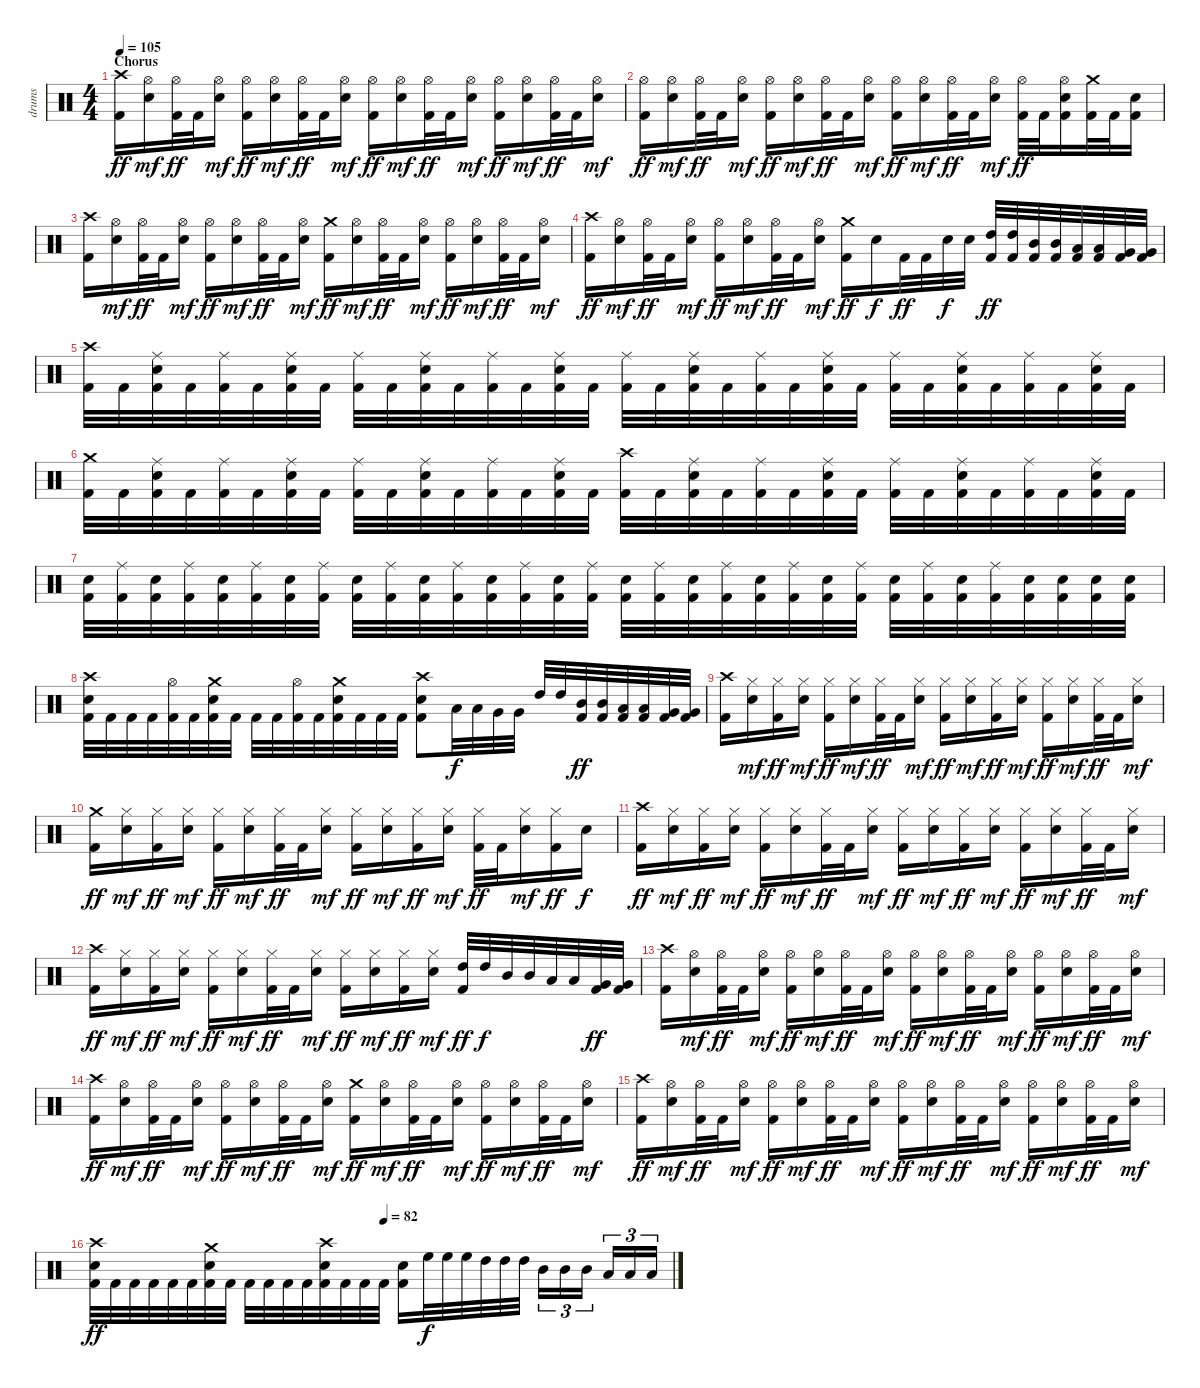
\track ("drums" "drums") {instrument percussion}
\staff {score}
\articulation defaults
\ts (4 4)
\section ("" "Chorus")
\tempo 105
\clef neutral
\ks c
("Crash high (hit)" "Kick (hit) 2").16{dy ff} ("Hi-Hat (open)" "Snare (hit) 2").16{dy mf} ("Hi-Hat (open)" "Kick (hit) 2").32{dy ff} "Kick (hit) 2".32 ("Hi-Hat (open)" "Snare (hit) 2").16{dy mf} ("Hi-Hat (open)" "Kick (hit) 2").16{dy ff} ("Hi-Hat (open)" "Snare (hit) 2").16{dy mf} ("Hi-Hat (open)" "Kick (hit) 2").32{dy ff} "Kick (hit) 2".32 ("Hi-Hat (open)" "Snare (hit) 2").16{dy mf} ("Hi-Hat (open)" "Kick (hit) 2").16{dy ff} ("Hi-Hat (open)" "Snare (hit) 2").16{dy mf} ("Hi-Hat (open)" "Kick (hit) 2").32{dy ff} "Kick (hit) 2".32 ("Hi-Hat (open)" "Snare (hit) 2").16{dy mf} ("Hi-Hat (open)" "Kick (hit) 2").16{dy ff} ("Hi-Hat (open)" "Snare (hit) 2").16{dy mf} ("Hi-Hat (open)" "Kick (hit) 2").32{dy ff} "Kick (hit) 2".32 ("Hi-Hat (open)" "Snare (hit) 2").16{dy mf} |
("Hi-Hat (open)" "Kick (hit) 2").16{dy ff} ("Hi-Hat (open)" "Snare (hit) 2").16{dy mf} ("Hi-Hat (open)" "Kick (hit) 2").32{dy ff} "Kick (hit) 2".32 ("Hi-Hat (open)" "Snare (hit) 2").16{dy mf} ("Hi-Hat (open)" "Kick (hit) 2").16{dy ff} ("Hi-Hat (open)" "Snare (hit) 2").16{dy mf} ("Hi-Hat (open)" "Kick (hit) 2").32{dy ff} "Kick (hit) 2".32 ("Hi-Hat (open)" "Snare (hit) 2").16{dy mf} ("Hi-Hat (open)" "Kick (hit) 2").16{dy ff} ("Hi-Hat (open)" "Snare (hit) 2").16{dy mf} ("Hi-Hat (open)" "Kick (hit) 2").32{dy ff} "Kick (hit) 2".32 ("Hi-Hat (open)" "Snare (hit) 2").16{dy mf} ("Hi-Hat (open)" "Kick (hit) 2").32{dy ff} "Kick (hit) 2".32 ("Hi-Hat (open)" "Snare (hit) 2" "Kick (hit) 2").16 ("Crash medium (hit)" "Kick (hit) 2").32 "Kick (hit) 2".32 ("Snare (hit) 2" "Kick (hit) 2").16 |
("Crash high (hit)" "Kick (hit) 2").16 ("Hi-Hat (open)" "Snare (hit) 2").16{dy mf} ("Hi-Hat (open)" "Kick (hit) 2").32{dy ff} "Kick (hit) 2".32 ("Hi-Hat (open)" "Snare (hit) 2").16{dy mf} ("Hi-Hat (open)" "Kick (hit) 2").16{dy ff} ("Hi-Hat (open)" "Snare (hit) 2").16{dy mf} ("Hi-Hat (open)" "Kick (hit) 2").32{dy ff} "Kick (hit) 2".32 ("Hi-Hat (open)" "Snare (hit) 2").16{dy mf} ("Crash medium (hit)" "Kick (hit) 2").16{dy ff} ("Hi-Hat (open)" "Snare (hit) 2").16{dy mf} ("Hi-Hat (open)" "Kick (hit) 2").32{dy ff} "Kick (hit) 2".32 ("Hi-Hat (open)" "Snare (hit) 2").16{dy mf} ("Hi-Hat (open)" "Kick (hit) 2").16{dy ff} ("Hi-Hat (open)" "Snare (hit) 2").16{dy mf} ("Hi-Hat (open)" "Kick (hit) 2").32{dy ff} "Kick (hit) 2".32 ("Hi-Hat (open)" "Snare (hit) 2").16{dy mf} |
("Crash high (hit)" "Kick (hit) 2").16{dy ff} ("Hi-Hat (open)" "Snare (hit) 2").16{dy mf} ("Hi-Hat (open)" "Kick (hit) 2").32{dy ff} "Kick (hit) 2".32 ("Hi-Hat (open)" "Snare (hit) 2").16{dy mf} ("Hi-Hat (open)" "Kick (hit) 2").16{dy ff} ("Hi-Hat (open)" "Snare (hit) 2").16{dy mf} ("Hi-Hat (open)" "Kick (hit) 2").32{dy ff} "Kick (hit) 2".32 ("Hi-Hat (open)" "Snare (hit) 2").16{dy mf} ("Crash medium (hit)" "Kick (hit) 2").16{dy ff} "Snare (hit) 2".16{dy f} "Kick (hit) 2".32{dy ff} "Kick (hit) 2".32 "Snare (hit) 2".32{dy f} "Snare (hit) 2".32 ("High Tom (hit)" "Kick (hit) 2").32{dy ff} ("High Tom (hit)" "Kick (hit) 2").32 ("Mid Tom (hit)" "Kick (hit) 2").32 ("Mid Tom (hit)" "Kick (hit) 2").32 ("Low Tom (hit)" "Kick (hit) 2").32 ("Low Tom (hit)" "Kick (hit) 2").32 ("Very Low Tom (hit)" "Kick (hit) 2").32 ("Very Low Tom (hit)" "Kick (hit) 2").32 |
("Crash high (hit)" "Kick (hit) 2").32 "Kick (hit) 2".32 ("Ride (middle)" "Snare (hit) 2" "Kick (hit) 2").32 "Kick (hit) 2".32 ("Ride (middle)" "Kick (hit) 2").32 "Kick (hit) 2".32 ("Ride (middle)" "Snare (hit) 2" "Kick (hit) 2").32 "Kick (hit) 2".32 ("Ride (middle)" "Kick (hit) 2").32 "Kick (hit) 2".32 ("Ride (middle)" "Snare (hit) 2" "Kick (hit) 2").32 "Kick (hit) 2".32 ("Ride (middle)" "Kick (hit) 2").32 "Kick (hit) 2".32 ("Ride (middle)" "Snare (hit) 2" "Kick (hit) 2").32 "Kick (hit) 2".32 ("Ride (middle)" "Kick (hit) 2").32 "Kick (hit) 2".32 ("Ride (middle)" "Snare (hit) 2" "Kick (hit) 2").32 "Kick (hit) 2".32 ("Ride (middle)" "Kick (hit) 2").32 "Kick (hit) 2".32 ("Ride (middle)" "Snare (hit) 2" "Kick (hit) 2").32 "Kick (hit) 2".32 ("Ride (middle)" "Kick (hit) 2").32 "Kick (hit) 2".32 ("Ride (middle)" "Snare (hit) 2" "Kick (hit) 2").32 "Kick (hit) 2".32 ("Ride (middle)" "Kick (hit) 2").32 "Kick (hit) 2".32 ("Ride (middle)" "Snare (hit) 2" "Kick (hit) 2").32 "Kick (hit) 2".32 |
("Crash medium (hit)" "Kick (hit) 2").32 "Kick (hit) 2".32 ("Ride (middle)" "Snare (hit) 2" "Kick (hit) 2").32 "Kick (hit) 2".32 ("Ride (middle)" "Kick (hit) 2").32 "Kick (hit) 2".32 ("Ride (middle)" "Snare (hit) 2" "Kick (hit) 2").32 "Kick (hit) 2".32 ("Ride (middle)" "Kick (hit) 2").32 "Kick (hit) 2".32 ("Ride (middle)" "Snare (hit) 2" "Kick (hit) 2").32 "Kick (hit) 2".32 ("Ride (middle)" "Kick (hit) 2").32 "Kick (hit) 2".32 ("Ride (middle)" "Snare (hit) 2" "Kick (hit) 2").32 "Kick (hit) 2".32 ("Crash high (hit)" "Kick (hit) 2").32 "Kick (hit) 2".32 ("Ride (middle)" "Snare (hit) 2" "Kick (hit) 2").32 "Kick (hit) 2".32 ("Ride (middle)" "Kick (hit) 2").32 "Kick (hit) 2".32 ("Ride (middle)" "Snare (hit) 2" "Kick (hit) 2").32 "Kick (hit) 2".32 ("Ride (middle)" "Kick (hit) 2").32 "Kick (hit) 2".32 ("Ride (middle)" "Snare (hit) 2" "Kick (hit) 2").32 "Kick (hit) 2".32 ("Ride (middle)" "Kick (hit) 2").32 "Kick (hit) 2".32 ("Ride (middle)" "Snare (hit) 2" "Kick (hit) 2").32 "Kick (hit) 2".32 |
("Snare (hit) 2" "Kick (hit) 2").32 ("Ride (middle)" "Kick (hit) 2").32 ("Snare (hit) 2" "Kick (hit) 2").32 ("Ride (middle)" "Kick (hit) 2").32 ("Snare (hit) 2" "Kick (hit) 2").32 ("Ride (middle)" "Kick (hit) 2").32 ("Snare (hit) 2" "Kick (hit) 2").32 ("Ride (middle)" "Kick (hit) 2").32 ("Snare (hit) 2" "Kick (hit) 2").32 ("Ride (middle)" "Kick (hit) 2").32 ("Snare (hit) 2" "Kick (hit) 2").32 ("Ride (middle)" "Kick (hit) 2").32 ("Snare (hit) 2" "Kick (hit) 2").32 ("Ride (middle)" "Kick (hit) 2").32 ("Snare (hit) 2" "Kick (hit) 2").32 ("Ride (middle)" "Kick (hit) 2").32 ("Snare (hit) 2" "Kick (hit) 2").32 ("Ride (middle)" "Kick (hit) 2").32 ("Snare (hit) 2" "Kick (hit) 2").32 ("Ride (middle)" "Kick (hit) 2").32 ("Snare (hit) 2" "Kick (hit) 2").32 ("Ride (middle)" "Kick (hit) 2").32 ("Snare (hit) 2" "Kick (hit) 2").32 ("Ride (middle)" "Kick (hit) 2").32 ("Snare (hit) 2" "Kick (hit) 2").32 ("Ride (middle)" "Kick (hit) 2").32 ("Snare (hit) 2" "Kick (hit) 2").32 ("Ride (middle)" "Kick (hit) 2").32 ("Snare (hit) 2" "Kick (hit) 2").32 ("Snare (hit) 2" "Kick (hit) 2").32 ("Snare (hit) 2" "Kick (hit) 2").32 ("Snare (hit) 2" "Kick (hit) 2").32 |
("Crash high (hit)" "Snare (hit) 2" "Kick (hit) 2").32 "Kick (hit) 2".32 "Kick (hit) 2".32 "Kick (hit) 2".32 ("Hi-Hat (open)" "Kick (hit) 2").32 "Kick (hit) 2".32 ("Crash medium (hit)" "Snare (hit) 2" "Kick (hit) 2").32 "Kick (hit) 2".32 "Kick (hit) 2".32 "Kick (hit) 2".32 ("Hi-Hat (open)" "Kick (hit) 2").32 "Kick (hit) 2".32 ("Crash medium (hit)" "Snare (hit) 2" "Kick (hit) 2").32 "Kick (hit) 2".32 "Kick (hit) 2".32 "Kick (hit) 2".32 ("Crash high (hit)" "Snare (hit) 2" "Kick (hit) 2").8 "Low Floor Tom (hit)".32{dy f} "Low Floor Tom (hit)".32 "Very Low Tom (hit)".32 "Very Low Tom (hit)".32 "High Tom (hit)".32 "High Tom (hit)".32 ("Mid Tom (hit)" "Kick (hit) 2").32{dy ff} ("Mid Tom (hit)" "Kick (hit) 2").32 ("Low Tom (hit)" "Kick (hit) 2").32 ("Low Tom (hit)" "Kick (hit) 2").32 ("Very Low Tom (hit)" "Kick (hit) 2").32 ("Very Low Tom (hit)" "Kick (hit) 2").32 |
\section ("" "")
("Crash high (hit)" "Kick (hit) 2").16 ("Hi-Hat (closed)" "Snare (hit) 2").16{dy mf} ("Hi-Hat (closed)" "Kick (hit) 2").16{dy ff} ("Hi-Hat (closed)" "Snare (hit) 2").16{dy mf} ("Hi-Hat (closed)" "Kick (hit) 2").16{dy ff} ("Hi-Hat (closed)" "Snare (hit) 2").16{dy mf} ("Hi-Hat (closed)" "Kick (hit) 2").32{dy ff} "Kick (hit) 2".32 ("Hi-Hat (closed)" "Snare (hit) 2").16{dy mf} ("Hi-Hat (closed)" "Kick (hit) 2").16{dy ff} ("Hi-Hat (closed)" "Snare (hit) 2").16{dy mf} ("Hi-Hat (closed)" "Kick (hit) 2").16{dy ff} ("Hi-Hat (closed)" "Snare (hit) 2").16{dy mf} ("Hi-Hat (closed)" "Kick (hit) 2").16{dy ff} ("Hi-Hat (closed)" "Snare (hit) 2").16{dy mf} ("Hi-Hat (closed)" "Kick (hit) 2").32{dy ff} "Kick (hit) 2".32 ("Hi-Hat (closed)" "Snare (hit) 2").16{dy mf} |
("Crash medium (hit)" "Kick (hit) 2").16{dy ff} ("Hi-Hat (closed)" "Snare (hit) 2").16{dy mf} ("Hi-Hat (closed)" "Kick (hit) 2").16{dy ff} ("Hi-Hat (closed)" "Snare (hit) 2").16{dy mf} ("Hi-Hat (closed)" "Kick (hit) 2").16{dy ff} ("Hi-Hat (closed)" "Snare (hit) 2").16{dy mf} ("Hi-Hat (closed)" "Kick (hit) 2").32{dy ff} "Kick (hit) 2".32 ("Hi-Hat (closed)" "Snare (hit) 2").16{dy mf} ("Hi-Hat (closed)" "Kick (hit) 2").16{dy ff} ("Hi-Hat (closed)" "Snare (hit) 2").16{dy mf} ("Hi-Hat (closed)" "Kick (hit) 2").16{dy ff} ("Hi-Hat (closed)" "Snare (hit) 2").16{dy mf} ("Hi-Hat (closed)" "Kick (hit) 2").32{dy ff} "Kick (hit) 2".32 ("Hi-Hat (closed)" "Snare (hit) 2").16{dy mf} ("Hi-Hat (closed)" "Kick (hit) 2").16{dy ff} "Snare (hit) 2".16{dy f} |
("Crash high (hit)" "Kick (hit) 2").16{dy ff} ("Hi-Hat (closed)" "Snare (hit) 2").16{dy mf} ("Hi-Hat (closed)" "Kick (hit) 2").16{dy ff} ("Hi-Hat (closed)" "Snare (hit) 2").16{dy mf} ("Hi-Hat (closed)" "Kick (hit) 2").16{dy ff} ("Hi-Hat (closed)" "Snare (hit) 2").16{dy mf} ("Hi-Hat (closed)" "Kick (hit) 2").32{dy ff} "Kick (hit) 2".32 ("Hi-Hat (closed)" "Snare (hit) 2").16{dy mf} ("Hi-Hat (closed)" "Kick (hit) 2").16{dy ff} ("Hi-Hat (closed)" "Snare (hit) 2").16{dy mf} ("Hi-Hat (closed)" "Kick (hit) 2").16{dy ff} ("Hi-Hat (closed)" "Snare (hit) 2").16{dy mf} ("Hi-Hat (closed)" "Kick (hit) 2").16{dy ff} ("Hi-Hat (closed)" "Snare (hit) 2").16{dy mf} ("Hi-Hat (closed)" "Kick (hit) 2").32{dy ff} "Kick (hit) 2".32 ("Hi-Hat (closed)" "Snare (hit) 2").16{dy mf} |
("Crash high (hit)" "Kick (hit) 2").16{dy ff} ("Hi-Hat (closed)" "Snare (hit) 2").16{dy mf} ("Hi-Hat (closed)" "Kick (hit) 2").16{dy ff} ("Hi-Hat (closed)" "Snare (hit) 2").16{dy mf} ("Hi-Hat (closed)" "Kick (hit) 2").16{dy ff} ("Hi-Hat (closed)" "Snare (hit) 2").16{dy mf} ("Hi-Hat (closed)" "Kick (hit) 2").32{dy ff} "Kick (hit) 2".32 ("Hi-Hat (closed)" "Snare (hit) 2").16{dy mf} ("Hi-Hat (closed)" "Kick (hit) 2").16{dy ff} ("Hi-Hat (closed)" "Snare (hit) 2").16{dy mf} ("Hi-Hat (closed)" "Kick (hit) 2").16{dy ff} ("Hi-Hat (closed)" "Snare (hit) 2").16{dy mf} ("High Tom (hit)" "Kick (hit) 2").32{dy ff} "High Tom (hit)".32{dy f} "Mid Tom (hit)".32 "Mid Tom (hit)".32 "Low Tom (hit)".32 "Low Tom (hit)".32 ("Very Low Tom (hit)" "Kick (hit) 2").32{dy ff} ("Very Low Tom (hit)" "Kick (hit) 2").32 |
("Crash high (hit)" "Kick (hit) 2").16 ("Hi-Hat (open)" "Snare (hit) 2").16{dy mf} ("Hi-Hat (open)" "Kick (hit) 2").32{dy ff} "Kick (hit) 2".32 ("Hi-Hat (open)" "Snare (hit) 2").16{dy mf} ("Hi-Hat (open)" "Kick (hit) 2").16{dy ff} ("Hi-Hat (open)" "Snare (hit) 2").16{dy mf} ("Hi-Hat (open)" "Kick (hit) 2").32{dy ff} "Kick (hit) 2".32 ("Hi-Hat (open)" "Snare (hit) 2").16{dy mf} ("Hi-Hat (open)" "Kick (hit) 2").16{dy ff} ("Hi-Hat (open)" "Snare (hit) 2").16{dy mf} ("Hi-Hat (open)" "Kick (hit) 2").32{dy ff} "Kick (hit) 2".32 ("Hi-Hat (open)" "Snare (hit) 2").16{dy mf} ("Hi-Hat (open)" "Kick (hit) 2").16{dy ff} ("Hi-Hat (open)" "Snare (hit) 2").16{dy mf} ("Hi-Hat (open)" "Kick (hit) 2").32{dy ff} "Kick (hit) 2".32 ("Hi-Hat (open)" "Snare (hit) 2").16{dy mf} |
("Crash high (hit)" "Kick (hit) 2").16{dy ff} ("Hi-Hat (open)" "Snare (hit) 2").16{dy mf} ("Hi-Hat (open)" "Kick (hit) 2").32{dy ff} "Kick (hit) 2".32 ("Hi-Hat (open)" "Snare (hit) 2").16{dy mf} ("Hi-Hat (open)" "Kick (hit) 2").16{dy ff} ("Hi-Hat (open)" "Snare (hit) 2").16{dy mf} ("Hi-Hat (open)" "Kick (hit) 2").32{dy ff} "Kick (hit) 2".32 ("Hi-Hat (open)" "Snare (hit) 2").16{dy mf} ("Crash medium (hit)" "Kick (hit) 2").16{dy ff} ("Hi-Hat (open)" "Snare (hit) 2").16{dy mf} ("Hi-Hat (open)" "Kick (hit) 2").32{dy ff} "Kick (hit) 2".32 ("Hi-Hat (open)" "Snare (hit) 2").16{dy mf} ("Hi-Hat (open)" "Kick (hit) 2").16{dy ff} ("Hi-Hat (open)" "Snare (hit) 2").16{dy mf} ("Hi-Hat (open)" "Kick (hit) 2").32{dy ff} "Kick (hit) 2".32 ("Hi-Hat (open)" "Snare (hit) 2").16{dy mf} |
("Crash high (hit)" "Kick (hit) 2").16{dy ff} ("Hi-Hat (open)" "Snare (hit) 2").16{dy mf} ("Hi-Hat (open)" "Kick (hit) 2").32{dy ff} "Kick (hit) 2".32 ("Hi-Hat (open)" "Snare (hit) 2").16{dy mf} ("Hi-Hat (open)" "Kick (hit) 2").16{dy ff} ("Hi-Hat (open)" "Snare (hit) 2").16{dy mf} ("Hi-Hat (open)" "Kick (hit) 2").32{dy ff} "Kick (hit) 2".32 ("Hi-Hat (open)" "Snare (hit) 2").16{dy mf} ("Hi-Hat (open)" "Kick (hit) 2").16{dy ff} ("Hi-Hat (open)" "Snare (hit) 2").16{dy mf} ("Hi-Hat (open)" "Kick (hit) 2").32{dy ff} "Kick (hit) 2".32 ("Hi-Hat (open)" "Snare (hit) 2").16{dy mf} ("Hi-Hat (open)" "Kick (hit) 2").16{dy ff} ("Hi-Hat (open)" "Snare (hit) 2").16{dy mf} ("Hi-Hat (open)" "Kick (hit) 2").32{dy ff} "Kick (hit) 2".32 ("Hi-Hat (open)" "Snare (hit) 2").16{dy mf} |
\tempo (82 0.5)
("Crash high (hit)" "Snare (hit) 2" "Kick (hit) 2").32{dy ff} "Kick (hit) 2".32 "Kick (hit) 2".32 "Kick (hit) 2".32 "Kick (hit) 2".32 "Kick (hit) 2".32 ("Crash medium (hit)" "Snare (hit) 2" "Kick (hit) 2").32 "Kick (hit) 2".32 "Kick (hit) 2".32 "Kick (hit) 2".32 "Kick (hit) 2".32 "Kick (hit) 2".32 ("Crash high (hit)" "Snare (hit) 2" "Kick (hit) 2").32 "Kick (hit) 2".32 "Kick (hit) 2".32 "Kick (hit) 2".32 ("Snare (hit) 2" "Kick (hit) 2").16 "High Floor Tom (hit)".32{dy f} "High Floor Tom (hit)".32 "High Floor Tom (hit)".32 "High Tom (hit)".32 "High Tom (hit)".32 "High Tom (hit)".32 "Mid Tom (hit)".16{tu (3 2)} "Mid Tom (hit)".16{tu (3 2)} "Mid Tom (hit)".16{tu (3 2)} "Low Tom (hit)".16{tu (3 2)} "Low Tom (hit)".16{tu (3 2)} "Low Tom (hit)".16{tu (3 2)}
